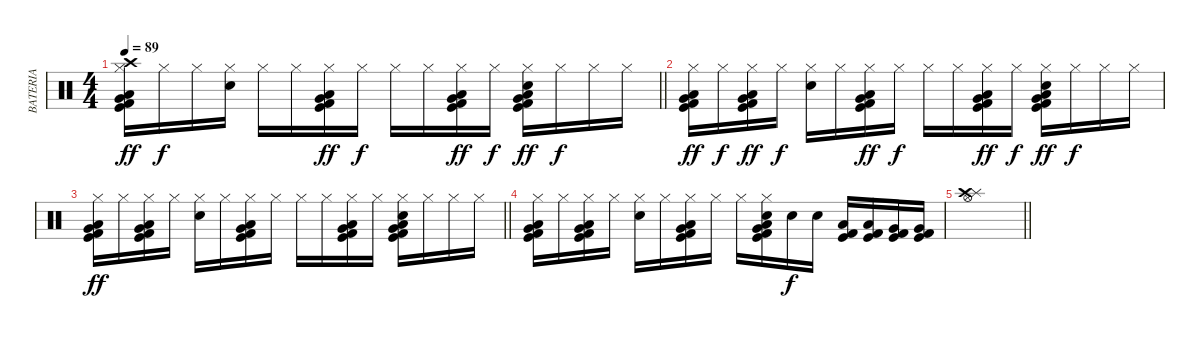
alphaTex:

\track ("BATERIA" "BATERIA") {instrument percussion}
\staff {score}
\articulation defaults
\ts (4 4)
\tempo 89
\clef neutral
\barLineRight lightlight
\ks c
("Hi-Hat (closed)" "Crash high (hit)" "Very Low Tom (hit)" "Kick (hit)" "Kick (hit) 2" "Low Floor Tom (hit)").16{dy ff} "Hi-Hat (closed)".16{dy f} "Hi-Hat (closed)".16 ("Hi-Hat (closed)" "Snare (hit) 2").16 "Hi-Hat (closed)".16 "Hi-Hat (closed)".16 ("Hi-Hat (closed)" "Very Low Tom (hit)" "Kick (hit)" "Kick (hit) 2" "Low Floor Tom (hit)").16{dy ff} "Hi-Hat (closed)".16{dy f} "Hi-Hat (closed)".16 "Hi-Hat (closed)".16 ("Hi-Hat (closed)" "Very Low Tom (hit)" "Kick (hit)" "Kick (hit) 2" "Low Floor Tom (hit)").16{dy ff} "Hi-Hat (closed)".16{dy f} ("Hi-Hat (closed)" "Snare (hit) 2" "Very Low Tom (hit)" "Kick (hit)" "Kick (hit) 2" "Low Floor Tom (hit)").16{dy ff} "Hi-Hat (closed)".16{dy f} "Hi-Hat (closed)".16 "Hi-Hat (closed)".16 |
("Hi-Hat (closed)" "Very Low Tom (hit)" "Kick (hit)" "Kick (hit) 2" "Low Floor Tom (hit)").16{dy ff} "Hi-Hat (closed)".16{dy f} ("Hi-Hat (closed)" "Very Low Tom (hit)" "Kick (hit)" "Kick (hit) 2" "Low Floor Tom (hit)").16{dy ff} "Hi-Hat (closed)".16{dy f} ("Hi-Hat (closed)" "Snare (hit) 2").16 "Hi-Hat (closed)".16 ("Hi-Hat (closed)" "Very Low Tom (hit)" "Kick (hit)" "Kick (hit) 2" "Low Floor Tom (hit)").16{dy ff} "Hi-Hat (closed)".16{dy f} "Hi-Hat (closed)".16 "Hi-Hat (closed)".16 ("Hi-Hat (closed)" "Very Low Tom (hit)" "Kick (hit)" "Kick (hit) 2" "Low Floor Tom (hit)").16{dy ff} "Hi-Hat (closed)".16{dy f} ("Hi-Hat (closed)" "Snare (hit) 2" "Very Low Tom (hit)" "Kick (hit)" "Kick (hit) 2" "Low Floor Tom (hit)").16{dy ff} "Hi-Hat (closed)".16{dy f} "Hi-Hat (closed)".16 "Hi-Hat (closed)".16 |
\barLineRight lightlight
("Hi-Hat (closed)" "Very Low Tom (hit)" "Kick (hit)" "Kick (hit) 2" "Low Floor Tom (hit)").16{dy ff} "Hi-Hat (closed)".16 ("Hi-Hat (closed)" "Very Low Tom (hit)" "Kick (hit)" "Kick (hit) 2" "Low Floor Tom (hit)").16 "Hi-Hat (closed)".16 ("Hi-Hat (closed)" "Snare (hit) 2").16 "Hi-Hat (closed)".16 ("Hi-Hat (closed)" "Very Low Tom (hit)" "Kick (hit)" "Kick (hit) 2" "Low Floor Tom (hit)").16 "Hi-Hat (closed)".16 "Hi-Hat (closed)".16 "Hi-Hat (closed)".16 ("Hi-Hat (closed)" "Very Low Tom (hit)" "Kick (hit)" "Kick (hit) 2" "Low Floor Tom (hit)").16 "Hi-Hat (closed)".16 ("Hi-Hat (closed)" "Snare (hit) 2" "Very Low Tom (hit)" "Kick (hit)" "Kick (hit) 2" "Low Floor Tom (hit)").16 "Hi-Hat (closed)".16 "Hi-Hat (closed)".16 "Hi-Hat (closed)".16 |
("Hi-Hat (closed)" "Very Low Tom (hit)" "Kick (hit)" "Kick (hit) 2" "Low Floor Tom (hit)").16 "Hi-Hat (closed)".16 ("Hi-Hat (closed)" "Very Low Tom (hit)" "Kick (hit)" "Kick (hit) 2" "Low Floor Tom (hit)").16 "Hi-Hat (closed)".16 ("Hi-Hat (closed)" "Snare (hit) 2").16 "Hi-Hat (closed)".16 ("Hi-Hat (closed)" "Very Low Tom (hit)" "Kick (hit)" "Kick (hit) 2" "Low Floor Tom (hit)").16 "Hi-Hat (closed)".16 "Hi-Hat (closed)".16 ("Hi-Hat (closed)" "Snare (hit) 2" "Very Low Tom (hit)" "Kick (hit)" "Kick (hit) 2" "Low Floor Tom (hit)").16 "Snare (hit) 2".16{dy f} "Snare (hit) 2".16 ("Low Floor Tom (hit)" "Kick (hit)" "Kick (hit) 2").16 ("Low Floor Tom (hit)" "Kick (hit)" "Kick (hit) 2").16 ("Very Low Tom (hit)" "Kick (hit)" "Kick (hit) 2").16 ("Very Low Tom (hit)" "Kick (hit)" "Kick (hit) 2").16 |
\barLineRight lightlight
("Hi-Hat (open)" "Splash (hit)" "Crash high (hit)").1
